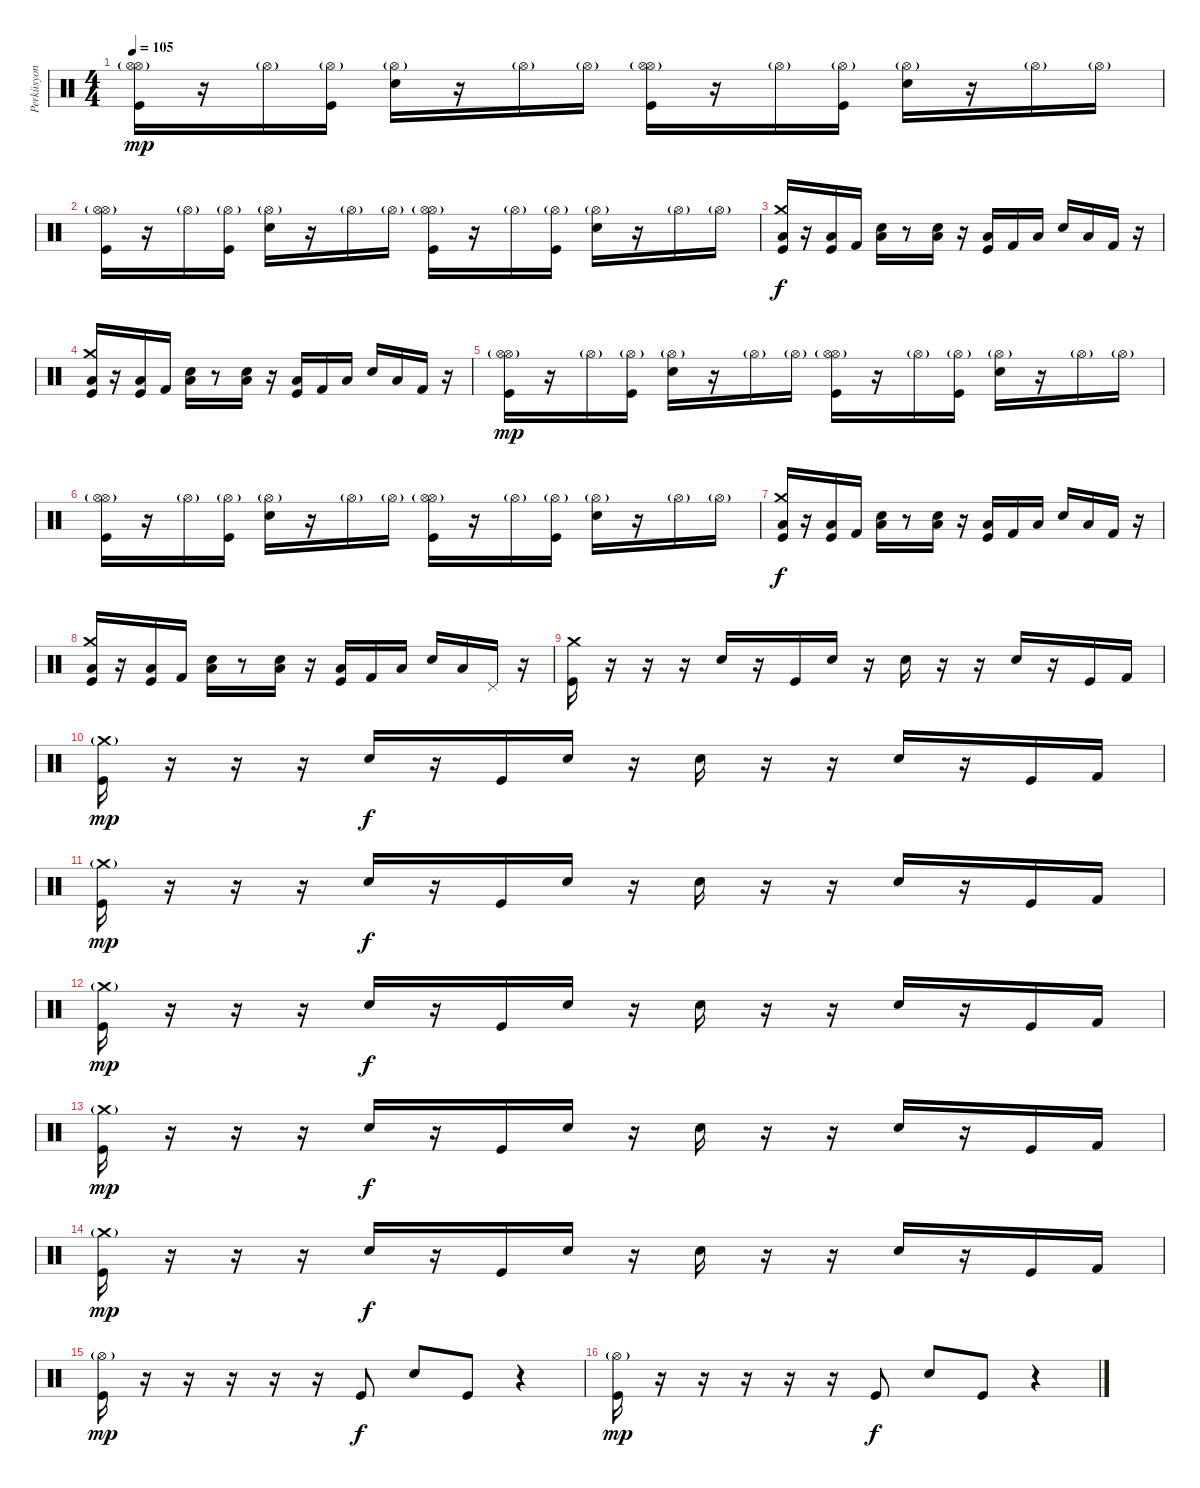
\track ("Perküsyon" "Perküsyon") {instrument percussion}
\staff {score}
\articulation defaults
\ts (4 4)
\tempo 105
\clef neutral
\ks c
("Hi-Hat (open)"{g pm} "Kick (hit)" "Hi-Hat (open)"{g}).16{dy mp} r.16 "Hi-Hat (open)"{g}.16 ("Kick (hit)" "Hi-Hat (open)"{g}).16 ("Electric Snare (hit)" "Hi-Hat (open)"{g}).16 r.16 "Hi-Hat (open)"{g}.16 "Hi-Hat (open)"{g}.16 ("Hi-Hat (open)"{g pm} "Kick (hit)" "Hi-Hat (open)"{g}).16 r.16 "Hi-Hat (open)"{g}.16 ("Kick (hit)" "Hi-Hat (open)"{g}).16 ("Electric Snare (hit)" "Hi-Hat (open)"{g}).16 r.16 "Hi-Hat (open)"{g}.16 "Hi-Hat (open)"{g}.16 |
("Hi-Hat (open)"{g pm} "Kick (hit)" "Hi-Hat (open)"{g}).16 r.16 "Hi-Hat (open)"{g}.16 ("Kick (hit)" "Hi-Hat (open)"{g}).16 ("Electric Snare (hit)" "Hi-Hat (open)"{g}).16 r.16 "Hi-Hat (open)"{g}.16 "Hi-Hat (open)"{g}.16 ("Hi-Hat (open)"{g pm} "Kick (hit)" "Hi-Hat (open)"{g}).16 r.16 "Hi-Hat (open)"{g}.16 ("Kick (hit)" "Hi-Hat (open)"{g}).16 ("Electric Snare (hit)" "Hi-Hat (open)"{g}).16 r.16 "Hi-Hat (open)"{g}.16 "Hi-Hat (open)"{g}.16 |
("Crash medium (hit)" "Kick (hit)" "Low Floor Tom (hit)").16{dy f} r.16 ("Kick (hit)" "Low Floor Tom (hit)").16 "Kick (hit) 2".16 ("Electric Snare (hit)" "Low Floor Tom (hit)").16 r.8 ("Electric Snare (hit)" "Low Floor Tom (hit)").16 r.16 ("Kick (hit)" "Low Floor Tom (hit)").16 "Kick (hit) 2".16 "Low Floor Tom (hit)".16 "Electric Snare (hit)".16 "Low Floor Tom (hit)".16 "Kick (hit) 2".16 r.16 |
("Crash medium (hit)" "Kick (hit)" "Low Floor Tom (hit)").16 r.16 ("Kick (hit)" "Low Floor Tom (hit)").16 "Kick (hit) 2".16 ("Electric Snare (hit)" "Low Floor Tom (hit)").16 r.8 ("Electric Snare (hit)" "Low Floor Tom (hit)").16 r.16 ("Kick (hit)" "Low Floor Tom (hit)").16 "Kick (hit) 2".16 "Low Floor Tom (hit)".16 "Electric Snare (hit)".16 "Low Floor Tom (hit)".16 "Kick (hit) 2".16 r.16 |
("Hi-Hat (open)"{g pm} "Kick (hit)" "Hi-Hat (open)"{g}).16{dy mp} r.16 "Hi-Hat (open)"{g}.16 ("Kick (hit)" "Hi-Hat (open)"{g}).16 ("Electric Snare (hit)" "Hi-Hat (open)"{g}).16 r.16 "Hi-Hat (open)"{g}.16 "Hi-Hat (open)"{g}.16 ("Hi-Hat (open)"{g pm} "Kick (hit)" "Hi-Hat (open)"{g}).16 r.16 "Hi-Hat (open)"{g}.16 ("Kick (hit)" "Hi-Hat (open)"{g}).16 ("Electric Snare (hit)" "Hi-Hat (open)"{g}).16 r.16 "Hi-Hat (open)"{g}.16 "Hi-Hat (open)"{g}.16 |
("Hi-Hat (open)"{g pm} "Kick (hit)" "Hi-Hat (open)"{g}).16 r.16 "Hi-Hat (open)"{g}.16 ("Kick (hit)" "Hi-Hat (open)"{g}).16 ("Electric Snare (hit)" "Hi-Hat (open)"{g}).16 r.16 "Hi-Hat (open)"{g}.16 "Hi-Hat (open)"{g}.16 ("Hi-Hat (open)"{g pm} "Kick (hit)" "Hi-Hat (open)"{g}).16 r.16 "Hi-Hat (open)"{g}.16 ("Kick (hit)" "Hi-Hat (open)"{g}).16 ("Electric Snare (hit)" "Hi-Hat (open)"{g}).16 r.16 "Hi-Hat (open)"{g}.16 "Hi-Hat (open)"{g}.16 |
("Crash medium (hit)" "Kick (hit)" "Low Floor Tom (hit)").16{dy f} r.16 ("Kick (hit)" "Low Floor Tom (hit)").16 "Kick (hit) 2".16 ("Electric Snare (hit)" "Low Floor Tom (hit)").16 r.8 ("Electric Snare (hit)" "Low Floor Tom (hit)").16 r.16 ("Kick (hit)" "Low Floor Tom (hit)").16 "Kick (hit) 2".16 "Low Floor Tom (hit)".16 "Electric Snare (hit)".16 "Low Floor Tom (hit)".16 "Kick (hit) 2".16 r.16 |
("Crash medium (hit)" "Kick (hit)" "Low Floor Tom (hit)").16 r.16 ("Kick (hit)" "Low Floor Tom (hit)").16 "Kick (hit) 2".16 ("Electric Snare (hit)" "Low Floor Tom (hit)").16 r.8 ("Electric Snare (hit)" "Low Floor Tom (hit)").16 r.16 ("Kick (hit)" "Low Floor Tom (hit)").16 "Kick (hit) 2".16 "Low Floor Tom (hit)".16 "Electric Snare (hit)".16 "Low Floor Tom (hit)".16 "Pedal Hi-Hat (hit)".16 r.16 |
("Crash medium (hit)" "Kick (hit)").16 r.16 r.16 r.16 "Electric Snare (hit)".16 r.16 "Kick (hit)".16 "Electric Snare (hit)".16 r.16 "Electric Snare (hit)".16 r.16 r.16 "Electric Snare (hit)".16 r.16 "Kick (hit)".16 "Kick (hit) 2".16 |
("Crash medium (hit)"{g} "Kick (hit)").16{dy mp} r.16 r.16 r.16 "Electric Snare (hit)".16{dy f} r.16 "Kick (hit)".16 "Electric Snare (hit)".16 r.16 "Electric Snare (hit)".16 r.16 r.16 "Electric Snare (hit)".16 r.16 "Kick (hit)".16 "Kick (hit) 2".16 |
("Crash medium (hit)"{g} "Kick (hit)").16{dy mp} r.16 r.16 r.16 "Electric Snare (hit)".16{dy f} r.16 "Kick (hit)".16 "Electric Snare (hit)".16 r.16 "Electric Snare (hit)".16 r.16 r.16 "Electric Snare (hit)".16 r.16 "Kick (hit)".16 "Kick (hit) 2".16 |
("Crash medium (hit)"{g} "Kick (hit)").16{dy mp} r.16 r.16 r.16 "Electric Snare (hit)".16{dy f} r.16 "Kick (hit)".16 "Electric Snare (hit)".16 r.16 "Electric Snare (hit)".16 r.16 r.16 "Electric Snare (hit)".16 r.16 "Kick (hit)".16 "Kick (hit) 2".16 |
("Crash medium (hit)"{g} "Kick (hit)").16{dy mp} r.16 r.16 r.16 "Electric Snare (hit)".16{dy f} r.16 "Kick (hit)".16 "Electric Snare (hit)".16 r.16 "Electric Snare (hit)".16 r.16 r.16 "Electric Snare (hit)".16 r.16 "Kick (hit)".16 "Kick (hit) 2".16 |
("Crash medium (hit)"{g} "Kick (hit)").16{dy mp} r.16 r.16 r.16 "Electric Snare (hit)".16{dy f} r.16 "Kick (hit)".16 "Electric Snare (hit)".16 r.16 "Electric Snare (hit)".16 r.16 r.16 "Electric Snare (hit)".16 r.16 "Kick (hit)".16 "Kick (hit) 2".16 |
("Hi-Hat (open)"{g} "Kick (hit)").16{dy mp} r.16 r.16 r.16 r.16 r.16 "Kick (hit)".8{dy f} "Electric Snare (hit)".8 "Kick (hit)".8 r.4 |
("Hi-Hat (open)"{g} "Kick (hit)").16{dy mp} r.16 r.16 r.16 r.16 r.16 "Kick (hit)".8{dy f} "Electric Snare (hit)".8 "Kick (hit)".8 r.4
